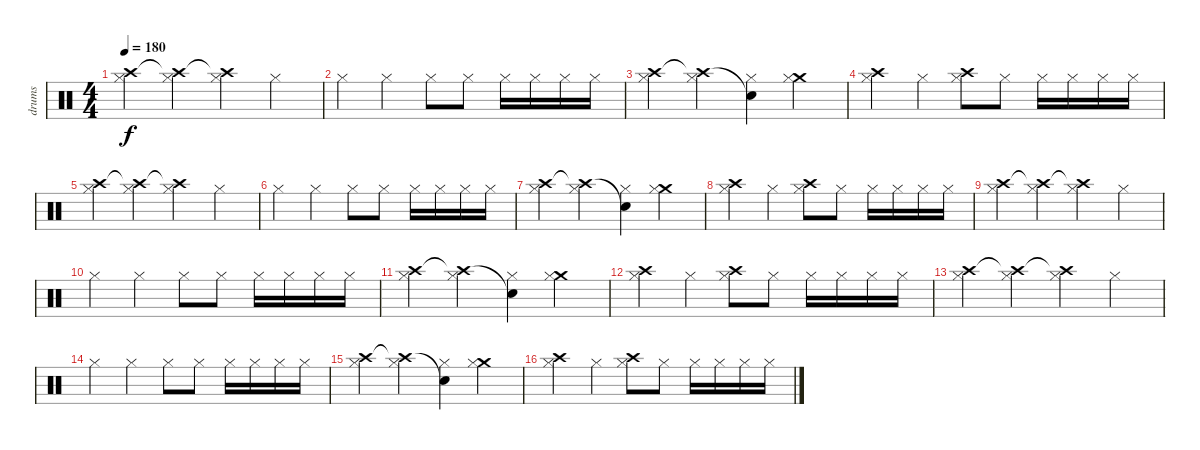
\track ("drums" "drums") {instrument percussion}
\staff {score}
\articulation defaults
\ts (4 4)
\tempo 180
\clef neutral
\ks c
("Crash high (hit)" "Hi-Hat (closed)").4{dy f} ("Crash high (hit)"{t} "Hi-Hat (closed)").4 ("Crash high (hit)"{t} "Hi-Hat (closed)").4 "Hi-Hat (closed)".4 |
"Hi-Hat (closed)".4 "Hi-Hat (closed)".4 "Hi-Hat (closed)".8 "Hi-Hat (closed)".8 "Hi-Hat (closed)".16 "Hi-Hat (closed)".16 "Hi-Hat (closed)".16 "Hi-Hat (closed)".16 |
("Crash high (hit)" "Hi-Hat (closed)").4 ("Crash high (hit)"{t} "Hi-Hat (closed)").4 ("Snare (hit)"{t} "Hi-Hat (closed)").4 ("Crash medium (hit)" "Hi-Hat (closed)").4 |
("Crash high (hit)" "Hi-Hat (closed)").4 "Hi-Hat (closed)".4 ("Crash high (hit)" "Hi-Hat (closed)").8 "Hi-Hat (closed)".8 "Hi-Hat (closed)".16 "Hi-Hat (closed)".16 "Hi-Hat (closed)".16 "Hi-Hat (closed)".16 |
("Crash high (hit)" "Hi-Hat (closed)").4 ("Crash high (hit)"{t} "Hi-Hat (closed)").4 ("Crash high (hit)"{t} "Hi-Hat (closed)").4 "Hi-Hat (closed)".4 |
"Hi-Hat (closed)".4 "Hi-Hat (closed)".4 "Hi-Hat (closed)".8 "Hi-Hat (closed)".8 "Hi-Hat (closed)".16 "Hi-Hat (closed)".16 "Hi-Hat (closed)".16 "Hi-Hat (closed)".16 |
("Crash high (hit)" "Hi-Hat (closed)").4 ("Crash high (hit)"{t} "Hi-Hat (closed)").4 ("Snare (hit)"{t} "Hi-Hat (closed)").4 ("Crash medium (hit)" "Hi-Hat (closed)").4 |
("Crash high (hit)" "Hi-Hat (closed)").4 "Hi-Hat (closed)".4 ("Crash high (hit)" "Hi-Hat (closed)").8 "Hi-Hat (closed)".8 "Hi-Hat (closed)".16 "Hi-Hat (closed)".16 "Hi-Hat (closed)".16 "Hi-Hat (closed)".16 |
("Crash high (hit)" "Hi-Hat (closed)").4 ("Crash high (hit)"{t} "Hi-Hat (closed)").4 ("Crash high (hit)"{t} "Hi-Hat (closed)").4 "Hi-Hat (closed)".4 |
"Hi-Hat (closed)".4 "Hi-Hat (closed)".4 "Hi-Hat (closed)".8 "Hi-Hat (closed)".8 "Hi-Hat (closed)".16 "Hi-Hat (closed)".16 "Hi-Hat (closed)".16 "Hi-Hat (closed)".16 |
("Crash high (hit)" "Hi-Hat (closed)").4 ("Crash high (hit)"{t} "Hi-Hat (closed)").4 ("Snare (hit)"{t} "Hi-Hat (closed)").4 ("Crash medium (hit)" "Hi-Hat (closed)").4 |
("Crash high (hit)" "Hi-Hat (closed)").4 "Hi-Hat (closed)".4 ("Crash high (hit)" "Hi-Hat (closed)").8 "Hi-Hat (closed)".8 "Hi-Hat (closed)".16 "Hi-Hat (closed)".16 "Hi-Hat (closed)".16 "Hi-Hat (closed)".16 |
("Crash high (hit)" "Hi-Hat (closed)").4 ("Crash high (hit)"{t} "Hi-Hat (closed)").4 ("Crash high (hit)"{t} "Hi-Hat (closed)").4 "Hi-Hat (closed)".4 |
"Hi-Hat (closed)".4 "Hi-Hat (closed)".4 "Hi-Hat (closed)".8 "Hi-Hat (closed)".8 "Hi-Hat (closed)".16 "Hi-Hat (closed)".16 "Hi-Hat (closed)".16 "Hi-Hat (closed)".16 |
("Crash high (hit)" "Hi-Hat (closed)").4 ("Crash high (hit)"{t} "Hi-Hat (closed)").4 ("Snare (hit)"{t} "Hi-Hat (closed)").4 ("Crash medium (hit)" "Hi-Hat (closed)").4 |
("Crash high (hit)" "Hi-Hat (closed)").4 "Hi-Hat (closed)".4 ("Crash high (hit)" "Hi-Hat (closed)").8 "Hi-Hat (closed)".8 "Hi-Hat (closed)".16 "Hi-Hat (closed)".16 "Hi-Hat (closed)".16 "Hi-Hat (closed)".16
